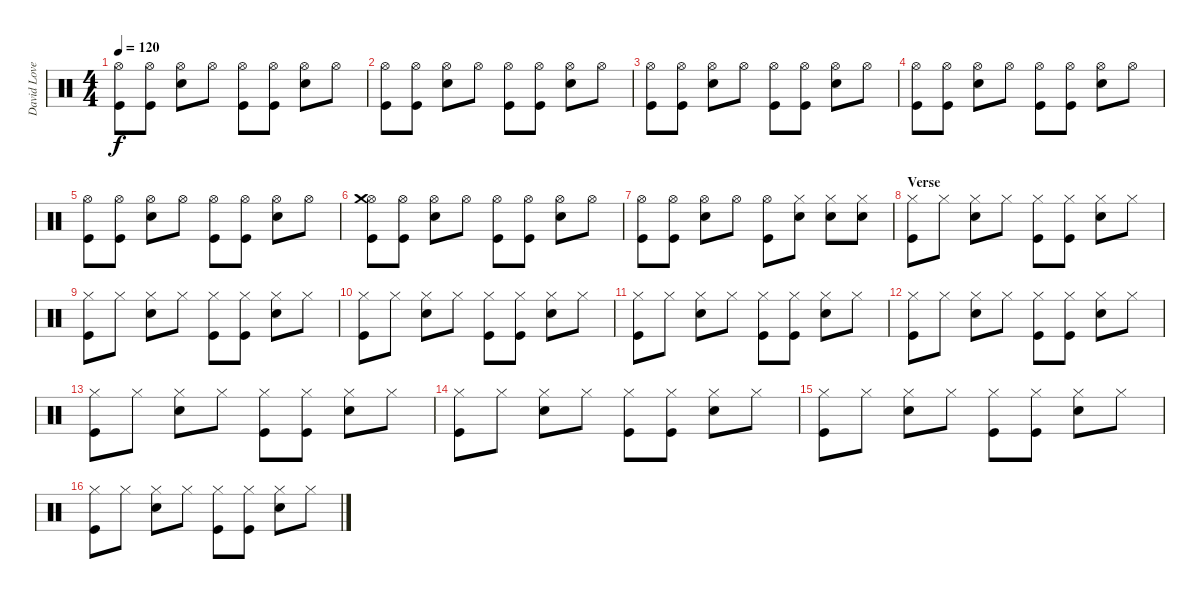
\track ("David Lovering" "David Love") {instrument percussion}
\staff {score}
\articulation defaults
\ts (4 4)
\tempo 120
\clef neutral
\ks c
("Hi-Hat (open)" "Kick (hit)").8{dy f} ("Hi-Hat (open)" "Kick (hit)").8 ("Hi-Hat (open)" "Snare (hit) 2").8 "Hi-Hat (open)".8 ("Hi-Hat (open)" "Kick (hit)").8 ("Hi-Hat (open)" "Kick (hit)").8 ("Hi-Hat (open)" "Snare (hit) 2").8 "Hi-Hat (open)".8 |
("Hi-Hat (open)" "Kick (hit)").8 ("Hi-Hat (open)" "Kick (hit)").8 ("Hi-Hat (open)" "Snare (hit) 2").8 "Hi-Hat (open)".8 ("Hi-Hat (open)" "Kick (hit)").8 ("Hi-Hat (open)" "Kick (hit)").8 ("Hi-Hat (open)" "Snare (hit) 2").8 "Hi-Hat (open)".8 |
("Hi-Hat (open)" "Kick (hit)").8 ("Hi-Hat (open)" "Kick (hit)").8 ("Hi-Hat (open)" "Snare (hit) 2").8 "Hi-Hat (open)".8 ("Hi-Hat (open)" "Kick (hit)").8 ("Hi-Hat (open)" "Kick (hit)").8 ("Hi-Hat (open)" "Snare (hit) 2").8 "Hi-Hat (open)".8 |
("Hi-Hat (open)" "Kick (hit)").8 ("Hi-Hat (open)" "Kick (hit)").8 ("Hi-Hat (open)" "Snare (hit) 2").8 "Hi-Hat (open)".8 ("Hi-Hat (open)" "Kick (hit)").8 ("Hi-Hat (open)" "Kick (hit)").8 ("Hi-Hat (open)" "Snare (hit) 2").8 "Hi-Hat (open)".8 |
("Hi-Hat (open)" "Kick (hit)").8 ("Hi-Hat (open)" "Kick (hit)").8 ("Hi-Hat (open)" "Snare (hit) 2").8 "Hi-Hat (open)".8 ("Hi-Hat (open)" "Kick (hit)").8 ("Hi-Hat (open)" "Kick (hit)").8 ("Hi-Hat (open)" "Snare (hit) 2").8 "Hi-Hat (open)".8 |
("Hi-Hat (open)" "Crash medium (hit)" "Kick (hit)").8 ("Hi-Hat (open)" "Kick (hit)").8 ("Hi-Hat (open)" "Snare (hit) 2").8 "Hi-Hat (open)".8 ("Hi-Hat (open)" "Kick (hit)").8 ("Hi-Hat (open)" "Kick (hit)").8 ("Hi-Hat (open)" "Snare (hit) 2").8 "Hi-Hat (open)".8 |
("Hi-Hat (open)" "Kick (hit)").8 ("Hi-Hat (open)" "Kick (hit)").8 ("Hi-Hat (open)" "Snare (hit) 2").8 "Hi-Hat (open)".8 ("Hi-Hat (open)" "Kick (hit)").8 ("Hi-Hat (closed)" "Snare (hit) 2").8 ("Hi-Hat (closed)" "Snare (hit) 2").8 ("Hi-Hat (closed)" "Snare (hit) 2").8 |
\section ("" "Verse")
("Hi-Hat (closed)" "Kick (hit)").8 "Hi-Hat (closed)".8 ("Hi-Hat (closed)" "Snare (hit) 2").8 "Hi-Hat (closed)".8 ("Hi-Hat (closed)" "Kick (hit)").8 ("Hi-Hat (closed)" "Kick (hit)").8 ("Hi-Hat (closed)" "Snare (hit) 2").8 "Hi-Hat (closed)".8 |
("Hi-Hat (closed)" "Kick (hit)").8 "Hi-Hat (closed)".8 ("Hi-Hat (closed)" "Snare (hit) 2").8 "Hi-Hat (closed)".8 ("Hi-Hat (closed)" "Kick (hit)").8 ("Hi-Hat (closed)" "Kick (hit)").8 ("Hi-Hat (closed)" "Snare (hit) 2").8 "Hi-Hat (closed)".8 |
("Hi-Hat (closed)" "Kick (hit)").8 "Hi-Hat (closed)".8 ("Hi-Hat (closed)" "Snare (hit) 2").8 "Hi-Hat (closed)".8 ("Hi-Hat (closed)" "Kick (hit)").8 ("Hi-Hat (closed)" "Kick (hit)").8 ("Hi-Hat (closed)" "Snare (hit) 2").8 "Hi-Hat (closed)".8 |
("Hi-Hat (closed)" "Kick (hit)").8 "Hi-Hat (closed)".8 ("Hi-Hat (closed)" "Snare (hit) 2").8 "Hi-Hat (closed)".8 ("Hi-Hat (closed)" "Kick (hit)").8 ("Hi-Hat (closed)" "Kick (hit)").8 ("Hi-Hat (closed)" "Snare (hit) 2").8 "Hi-Hat (closed)".8 |
("Hi-Hat (closed)" "Kick (hit)").8 "Hi-Hat (closed)".8 ("Hi-Hat (closed)" "Snare (hit) 2").8 "Hi-Hat (closed)".8 ("Hi-Hat (closed)" "Kick (hit)").8 ("Hi-Hat (closed)" "Kick (hit)").8 ("Hi-Hat (closed)" "Snare (hit) 2").8 "Hi-Hat (closed)".8 |
("Hi-Hat (closed)" "Kick (hit)").8 "Hi-Hat (closed)".8 ("Hi-Hat (closed)" "Snare (hit) 2").8 "Hi-Hat (closed)".8 ("Hi-Hat (closed)" "Kick (hit)").8 ("Hi-Hat (closed)" "Kick (hit)").8 ("Hi-Hat (closed)" "Snare (hit) 2").8 "Hi-Hat (closed)".8 |
("Hi-Hat (closed)" "Kick (hit)").8 "Hi-Hat (closed)".8 ("Hi-Hat (closed)" "Snare (hit) 2").8 "Hi-Hat (closed)".8 ("Hi-Hat (closed)" "Kick (hit)").8 ("Hi-Hat (closed)" "Kick (hit)").8 ("Hi-Hat (closed)" "Snare (hit) 2").8 "Hi-Hat (closed)".8 |
("Hi-Hat (closed)" "Kick (hit)").8 "Hi-Hat (closed)".8 ("Hi-Hat (closed)" "Snare (hit) 2").8 "Hi-Hat (closed)".8 ("Hi-Hat (closed)" "Kick (hit)").8 ("Hi-Hat (closed)" "Kick (hit)").8 ("Hi-Hat (closed)" "Snare (hit) 2").8 "Hi-Hat (closed)".8 |
("Hi-Hat (closed)" "Kick (hit)").8 "Hi-Hat (closed)".8 ("Hi-Hat (closed)" "Snare (hit) 2").8 "Hi-Hat (closed)".8 ("Hi-Hat (closed)" "Kick (hit)").8 ("Hi-Hat (closed)" "Kick (hit)").8 ("Hi-Hat (closed)" "Snare (hit) 2").8 "Hi-Hat (closed)".8
